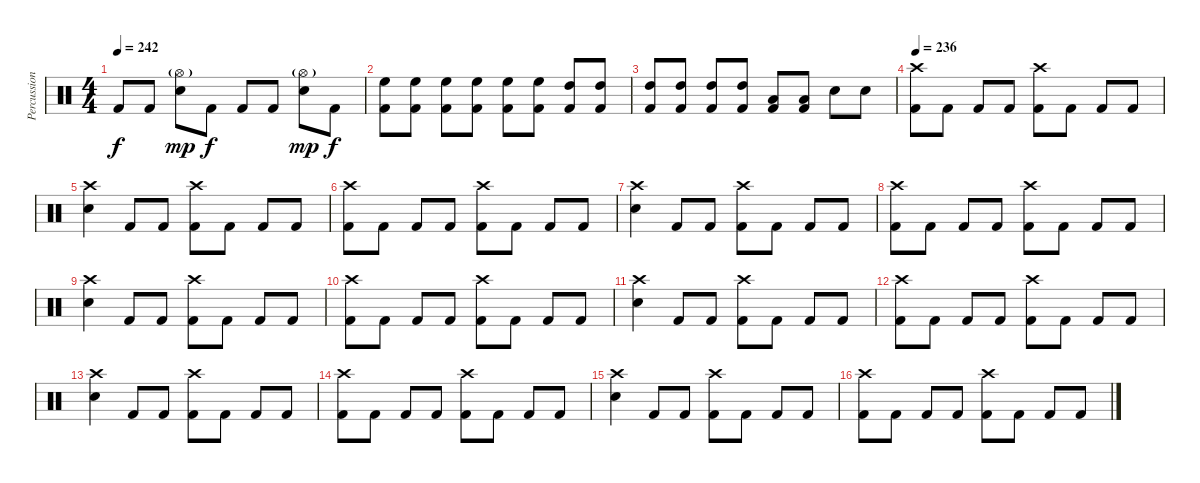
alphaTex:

\track ("Percussion" "Percussion") {instrument percussion}
\staff {score}
\articulation defaults
\ts (4 4)
\tempo 242
\clef neutral
\ks c "Kick (hit) 2".8{dy f} "Kick (hit) 2".8
("Hi-Hat (open)"{g} "Electric Snare (hit)").8{dy mp} "Kick (hit) 2".8{dy f} "Kick (hit) 2".8 "Kick (hit) 2".8 ("Hi-Hat (open)"{g} "Electric Snare (hit)").8{dy mp} "Kick (hit) 2".8{dy f} |
("High Floor Tom (hit)" "Kick (hit) 2").8 ("High Floor Tom (hit)" "Kick (hit) 2").8 ("High Floor Tom (hit)" "Kick (hit) 2").8 ("High Floor Tom (hit)" "Kick (hit) 2").8 ("High Floor Tom (hit)" "Kick (hit) 2").8 ("High Floor Tom (hit)" "Kick (hit) 2").8 ("High Tom (hit)" "Kick (hit) 2").8 ("High Tom (hit)" "Kick (hit) 2").8 |
("High Tom (hit)" "Kick (hit) 2").8 ("High Tom (hit)" "Kick (hit) 2").8 ("High Tom (hit)" "Kick (hit) 2").8 ("High Tom (hit)" "Kick (hit) 2").8 ("Low Tom (hit)" "Kick (hit) 2").8 ("Low Tom (hit)" "Kick (hit) 2").8 "Electric Snare (hit)".8 "Electric Snare (hit)".8 |
\tempo 236
("Crash high (hit)" "Kick (hit) 2").8 "Kick (hit) 2".8 "Kick (hit) 2".8 "Kick (hit) 2".8 ("Crash high (hit)" "Kick (hit) 2").8 "Kick (hit) 2".8 "Kick (hit) 2".8 "Kick (hit) 2".8 |
("Crash high (hit)" "Electric Snare (hit)").4 "Kick (hit) 2".8 "Kick (hit) 2".8 ("Crash high (hit)" "Kick (hit) 2").8 "Kick (hit) 2".8 "Kick (hit) 2".8 "Kick (hit) 2".8 |
("Crash high (hit)" "Kick (hit) 2").8 "Kick (hit) 2".8 "Kick (hit) 2".8 "Kick (hit) 2".8 ("Crash high (hit)" "Kick (hit) 2").8 "Kick (hit) 2".8 "Kick (hit) 2".8 "Kick (hit) 2".8 |
("Crash high (hit)" "Electric Snare (hit)").4 "Kick (hit) 2".8 "Kick (hit) 2".8 ("Crash high (hit)" "Kick (hit) 2").8 "Kick (hit) 2".8 "Kick (hit) 2".8 "Kick (hit) 2".8 |
("Crash high (hit)" "Kick (hit) 2").8 "Kick (hit) 2".8 "Kick (hit) 2".8 "Kick (hit) 2".8 ("Crash high (hit)" "Kick (hit) 2").8 "Kick (hit) 2".8 "Kick (hit) 2".8 "Kick (hit) 2".8 |
("Crash high (hit)" "Electric Snare (hit)").4 "Kick (hit) 2".8 "Kick (hit) 2".8 ("Crash high (hit)" "Kick (hit) 2").8 "Kick (hit) 2".8 "Kick (hit) 2".8 "Kick (hit) 2".8 |
("Crash high (hit)" "Kick (hit) 2").8 "Kick (hit) 2".8 "Kick (hit) 2".8 "Kick (hit) 2".8 ("Crash high (hit)" "Kick (hit) 2").8 "Kick (hit) 2".8 "Kick (hit) 2".8 "Kick (hit) 2".8 |
("Crash high (hit)" "Electric Snare (hit)").4 "Kick (hit) 2".8 "Kick (hit) 2".8 ("Crash high (hit)" "Kick (hit) 2").8 "Kick (hit) 2".8 "Kick (hit) 2".8 "Kick (hit) 2".8 |
("Crash high (hit)" "Kick (hit) 2").8 "Kick (hit) 2".8 "Kick (hit) 2".8 "Kick (hit) 2".8 ("Crash high (hit)" "Kick (hit) 2").8 "Kick (hit) 2".8 "Kick (hit) 2".8 "Kick (hit) 2".8 |
("Crash high (hit)" "Electric Snare (hit)").4 "Kick (hit) 2".8 "Kick (hit) 2".8 ("Crash high (hit)" "Kick (hit) 2").8 "Kick (hit) 2".8 "Kick (hit) 2".8 "Kick (hit) 2".8 |
("Crash high (hit)" "Kick (hit) 2").8 "Kick (hit) 2".8 "Kick (hit) 2".8 "Kick (hit) 2".8 ("Crash high (hit)" "Kick (hit) 2").8 "Kick (hit) 2".8 "Kick (hit) 2".8 "Kick (hit) 2".8 |
("Crash high (hit)" "Electric Snare (hit)").4 "Kick (hit) 2".8 "Kick (hit) 2".8 ("Crash high (hit)" "Kick (hit) 2").8 "Kick (hit) 2".8 "Kick (hit) 2".8 "Kick (hit) 2".8 |
("Crash high (hit)" "Kick (hit) 2").8 "Kick (hit) 2".8 "Kick (hit) 2".8 "Kick (hit) 2".8 ("Crash high (hit)" "Kick (hit) 2").8 "Kick (hit) 2".8 "Kick (hit) 2".8 "Kick (hit) 2".8
